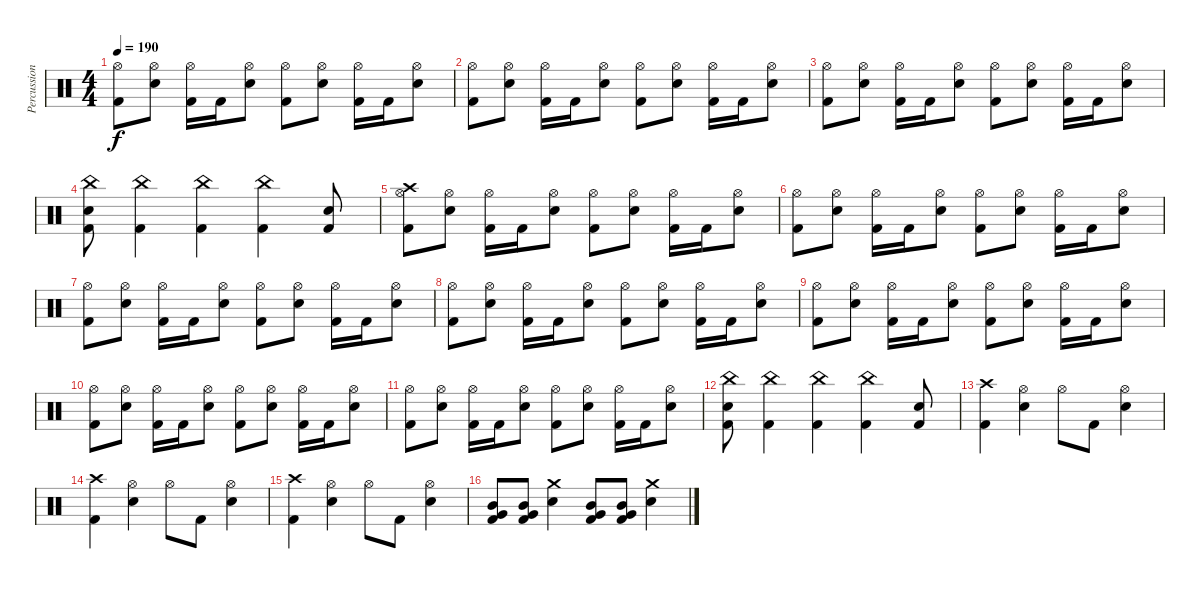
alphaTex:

\track ("Percussion" "Percussion") {instrument percussion}
\staff {score}
\articulation defaults
\ts (4 4)
\tempo 190
\clef neutral
\ks c
("Hi-Hat (open)" "Kick (hit) 2").8{dy f} ("Hi-Hat (open)" "Snare (hit) 2").8 ("Hi-Hat (open)" "Kick (hit) 2").16 "Kick (hit) 2".16 ("Hi-Hat (open)" "Snare (hit) 2").8 ("Hi-Hat (open)" "Kick (hit) 2").8 ("Hi-Hat (open)" "Snare (hit) 2").8 ("Hi-Hat (open)" "Kick (hit) 2").16 "Kick (hit) 2".16 ("Hi-Hat (open)" "Snare (hit) 2").8 |
("Hi-Hat (open)" "Kick (hit) 2").8 ("Hi-Hat (open)" "Snare (hit) 2").8 ("Hi-Hat (open)" "Kick (hit) 2").16 "Kick (hit) 2".16 ("Hi-Hat (open)" "Snare (hit) 2").8 ("Hi-Hat (open)" "Kick (hit) 2").8 ("Hi-Hat (open)" "Snare (hit) 2").8 ("Hi-Hat (open)" "Kick (hit) 2").16 "Kick (hit) 2".16 ("Hi-Hat (open)" "Snare (hit) 2").8 |
("Hi-Hat (open)" "Kick (hit) 2").8 ("Hi-Hat (open)" "Snare (hit) 2").8 ("Hi-Hat (open)" "Kick (hit) 2").16 "Kick (hit) 2".16 ("Hi-Hat (open)" "Snare (hit) 2").8 ("Hi-Hat (open)" "Kick (hit) 2").8 ("Hi-Hat (open)" "Snare (hit) 2").8 ("Hi-Hat (open)" "Kick (hit) 2").16 "Kick (hit) 2".16 ("Hi-Hat (open)" "Snare (hit) 2").8 |
("China (hit)" "Snare (hit) 2" "Kick (hit) 2").8 ("China (hit)" "Kick (hit) 2").4 ("China (hit)" "Kick (hit) 2").4 ("China (hit)" "Kick (hit) 2").4 ("Snare (hit) 2" "Kick (hit) 2").8 |
("Crash high (hit)" "Hi-Hat (open)" "Kick (hit) 2").8 ("Hi-Hat (open)" "Snare (hit) 2").8 ("Hi-Hat (open)" "Kick (hit) 2").16 "Kick (hit) 2".16 ("Hi-Hat (open)" "Snare (hit) 2").8 ("Hi-Hat (open)" "Kick (hit) 2").8 ("Hi-Hat (open)" "Snare (hit) 2").8 ("Hi-Hat (open)" "Kick (hit) 2").16 "Kick (hit) 2".16 ("Hi-Hat (open)" "Snare (hit) 2").8 |
("Hi-Hat (open)" "Kick (hit) 2").8 ("Hi-Hat (open)" "Snare (hit) 2").8 ("Hi-Hat (open)" "Kick (hit) 2").16 "Kick (hit) 2".16 ("Hi-Hat (open)" "Snare (hit) 2").8 ("Hi-Hat (open)" "Kick (hit) 2").8 ("Hi-Hat (open)" "Snare (hit) 2").8 ("Hi-Hat (open)" "Kick (hit) 2").16 "Kick (hit) 2".16 ("Hi-Hat (open)" "Snare (hit) 2").8 |
("Hi-Hat (open)" "Kick (hit) 2").8 ("Hi-Hat (open)" "Snare (hit) 2").8 ("Hi-Hat (open)" "Kick (hit) 2").16 "Kick (hit) 2".16 ("Hi-Hat (open)" "Snare (hit) 2").8 ("Hi-Hat (open)" "Kick (hit) 2").8 ("Hi-Hat (open)" "Snare (hit) 2").8 ("Hi-Hat (open)" "Kick (hit) 2").16 "Kick (hit) 2".16 ("Hi-Hat (open)" "Snare (hit) 2").8 |
("Hi-Hat (open)" "Kick (hit) 2").8 ("Hi-Hat (open)" "Snare (hit) 2").8 ("Hi-Hat (open)" "Kick (hit) 2").16 "Kick (hit) 2".16 ("Hi-Hat (open)" "Snare (hit) 2").8 ("Hi-Hat (open)" "Kick (hit) 2").8 ("Hi-Hat (open)" "Snare (hit) 2").8 ("Hi-Hat (open)" "Kick (hit) 2").16 "Kick (hit) 2".16 ("Hi-Hat (open)" "Snare (hit) 2").8 |
("Hi-Hat (open)" "Kick (hit) 2").8 ("Hi-Hat (open)" "Snare (hit) 2").8 ("Hi-Hat (open)" "Kick (hit) 2").16 "Kick (hit) 2".16 ("Hi-Hat (open)" "Snare (hit) 2").8 ("Hi-Hat (open)" "Kick (hit) 2").8 ("Hi-Hat (open)" "Snare (hit) 2").8 ("Hi-Hat (open)" "Kick (hit) 2").16 "Kick (hit) 2".16 ("Hi-Hat (open)" "Snare (hit) 2").8 |
("Hi-Hat (open)" "Kick (hit) 2").8 ("Hi-Hat (open)" "Snare (hit) 2").8 ("Hi-Hat (open)" "Kick (hit) 2").16 "Kick (hit) 2".16 ("Hi-Hat (open)" "Snare (hit) 2").8 ("Hi-Hat (open)" "Kick (hit) 2").8 ("Hi-Hat (open)" "Snare (hit) 2").8 ("Hi-Hat (open)" "Kick (hit) 2").16 "Kick (hit) 2".16 ("Hi-Hat (open)" "Snare (hit) 2").8 |
("Hi-Hat (open)" "Kick (hit) 2").8 ("Hi-Hat (open)" "Snare (hit) 2").8 ("Hi-Hat (open)" "Kick (hit) 2").16 "Kick (hit) 2".16 ("Hi-Hat (open)" "Snare (hit) 2").8 ("Hi-Hat (open)" "Kick (hit) 2").8 ("Hi-Hat (open)" "Snare (hit) 2").8 ("Hi-Hat (open)" "Kick (hit) 2").16 "Kick (hit) 2".16 ("Hi-Hat (open)" "Snare (hit) 2").8 |
("China (hit)" "Snare (hit) 2" "Kick (hit) 2").8 ("China (hit)" "Kick (hit) 2").4 ("China (hit)" "Kick (hit) 2").4 ("China (hit)" "Kick (hit) 2").4 ("Snare (hit) 2" "Kick (hit) 2").8 |
("Crash high (hit)" "Kick (hit) 2").4 ("Hi-Hat (open)" "Snare (hit) 2").4 "Hi-Hat (open)".8 "Kick (hit) 2".8 ("Hi-Hat (open)" "Snare (hit) 2").4 |
("Crash high (hit)" "Kick (hit) 2").4 ("Hi-Hat (open)" "Snare (hit) 2").4 "Hi-Hat (open)".8 "Kick (hit) 2".8 ("Hi-Hat (open)" "Snare (hit) 2").4 |
("Crash high (hit)" "Kick (hit) 2").4 ("Hi-Hat (open)" "Snare (hit) 2").4 "Hi-Hat (open)".8 "Kick (hit) 2".8 ("Hi-Hat (open)" "Snare (hit) 2").4 |
("Mid Tom (hit)" "Very Low Tom (hit)" "Kick (hit) 2").8 ("Mid Tom (hit)" "Very Low Tom (hit)" "Kick (hit) 2").8 ("Crash medium (hit)" "Snare (hit) 2").4 ("Mid Tom (hit)" "Very Low Tom (hit)" "Kick (hit) 2").8 ("Mid Tom (hit)" "Very Low Tom (hit)" "Kick (hit) 2").8 ("Crash medium (hit)" "Snare (hit) 2").4
